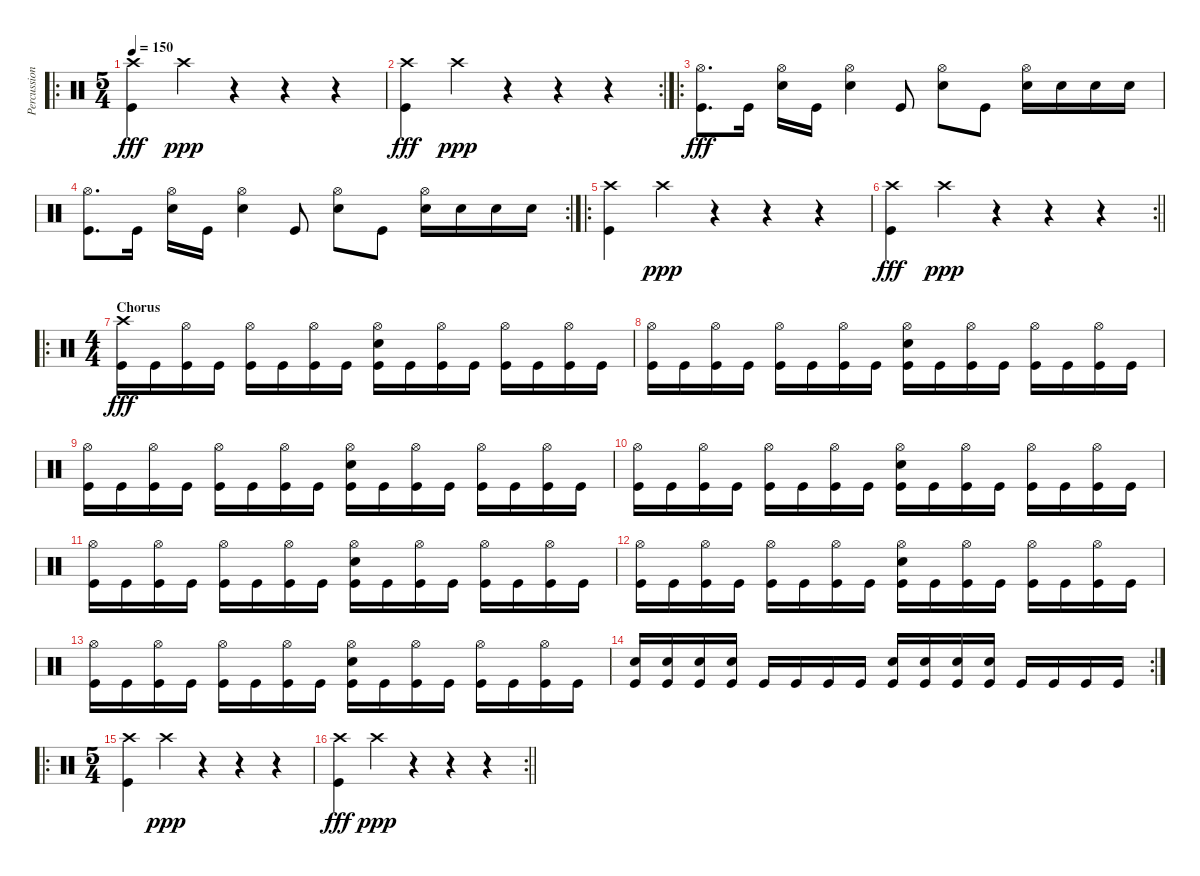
\track ("Percussioni" "Percussion") {instrument percussion}
\staff {score}
\articulation defaults
\ro
\ts (5 4)
\tempo 150
\clef neutral
\ks c
("Crash high (hit)" "Kick (hit)").4{dy fff} "Crash high (hit)".4{dy ppp} r.4 r.4 r.4 |
\rc 2
("Crash high (hit)" "Kick (hit)").4{dy fff} "Crash high (hit)".4{dy ppp} r.4 r.4 r.4 |
\ro
("Hi-Hat (open)" "Kick (hit)").8{d dy fff} "Kick (hit)".16 ("Hi-Hat (open)" "Snare (hit) 2").16 "Kick (hit)".16 ("Hi-Hat (open)" "Snare (hit) 2").4 "Kick (hit)".8 ("Hi-Hat (open)" "Snare (hit) 2").8 "Kick (hit)".8 ("Hi-Hat (open)" "Snare (hit) 2").16 "Snare (hit) 2".16 "Snare (hit) 2".16 "Snare (hit) 2".16 |
\rc 2
("Hi-Hat (open)" "Kick (hit)").8{d} "Kick (hit)".16 ("Hi-Hat (open)" "Snare (hit) 2").16 "Kick (hit)".16 ("Hi-Hat (open)" "Snare (hit) 2").4 "Kick (hit)".8 ("Hi-Hat (open)" "Snare (hit) 2").8 "Kick (hit)".8 ("Hi-Hat (open)" "Snare (hit) 2").16 "Snare (hit) 2".16 "Snare (hit) 2".16 "Snare (hit) 2".16 |
\ro
("Crash high (hit)" "Kick (hit)").4 "Crash high (hit)".4{dy ppp} r.4 r.4 r.4 |
\rc 2
\barLineRight lightlight
("Crash high (hit)" "Kick (hit)").4{dy fff} "Crash high (hit)".4{dy ppp} r.4 r.4 r.4 |
\ro
\ts (4 4)
\section ("" "Chorus")
("Crash high (hit)" "Kick (hit)").16{dy fff} "Kick (hit)".16 ("Hi-Hat (open)" "Kick (hit)").16 "Kick (hit)".16 ("Hi-Hat (open)" "Kick (hit)").16 "Kick (hit)".16 ("Hi-Hat (open)" "Kick (hit)").16 "Kick (hit)".16 ("Hi-Hat (open)" "Snare (hit) 2" "Kick (hit)").16 "Kick (hit)".16 ("Hi-Hat (open)" "Kick (hit)").16 "Kick (hit)".16 ("Hi-Hat (open)" "Kick (hit)").16 "Kick (hit)".16 ("Hi-Hat (open)" "Kick (hit)").16 "Kick (hit)".16 |
("Hi-Hat (open)" "Kick (hit)").16 "Kick (hit)".16 ("Hi-Hat (open)" "Kick (hit)").16 "Kick (hit)".16 ("Hi-Hat (open)" "Kick (hit)").16 "Kick (hit)".16 ("Hi-Hat (open)" "Kick (hit)").16 "Kick (hit)".16 ("Hi-Hat (open)" "Snare (hit) 2" "Kick (hit)").16 "Kick (hit)".16 ("Hi-Hat (open)" "Kick (hit)").16 "Kick (hit)".16 ("Hi-Hat (open)" "Kick (hit)").16 "Kick (hit)".16 ("Hi-Hat (open)" "Kick (hit)").16 "Kick (hit)".16 |
("Hi-Hat (open)" "Kick (hit)").16 "Kick (hit)".16 ("Hi-Hat (open)" "Kick (hit)").16 "Kick (hit)".16 ("Hi-Hat (open)" "Kick (hit)").16 "Kick (hit)".16 ("Hi-Hat (open)" "Kick (hit)").16 "Kick (hit)".16 ("Hi-Hat (open)" "Snare (hit) 2" "Kick (hit)").16 "Kick (hit)".16 ("Hi-Hat (open)" "Kick (hit)").16 "Kick (hit)".16 ("Hi-Hat (open)" "Kick (hit)").16 "Kick (hit)".16 ("Hi-Hat (open)" "Kick (hit)").16 "Kick (hit)".16 |
("Hi-Hat (open)" "Kick (hit)").16 "Kick (hit)".16 ("Hi-Hat (open)" "Kick (hit)").16 "Kick (hit)".16 ("Hi-Hat (open)" "Kick (hit)").16 "Kick (hit)".16 ("Hi-Hat (open)" "Kick (hit)").16 "Kick (hit)".16 ("Hi-Hat (open)" "Snare (hit) 2" "Kick (hit)").16 "Kick (hit)".16 ("Hi-Hat (open)" "Kick (hit)").16 "Kick (hit)".16 ("Hi-Hat (open)" "Kick (hit)").16 "Kick (hit)".16 ("Hi-Hat (open)" "Kick (hit)").16 "Kick (hit)".16 |
("Hi-Hat (open)" "Kick (hit)").16 "Kick (hit)".16 ("Hi-Hat (open)" "Kick (hit)").16 "Kick (hit)".16 ("Hi-Hat (open)" "Kick (hit)").16 "Kick (hit)".16 ("Hi-Hat (open)" "Kick (hit)").16 "Kick (hit)".16 ("Hi-Hat (open)" "Snare (hit) 2" "Kick (hit)").16 "Kick (hit)".16 ("Hi-Hat (open)" "Kick (hit)").16 "Kick (hit)".16 ("Hi-Hat (open)" "Kick (hit)").16 "Kick (hit)".16 ("Hi-Hat (open)" "Kick (hit)").16 "Kick (hit)".16 |
("Hi-Hat (open)" "Kick (hit)").16 "Kick (hit)".16 ("Hi-Hat (open)" "Kick (hit)").16 "Kick (hit)".16 ("Hi-Hat (open)" "Kick (hit)").16 "Kick (hit)".16 ("Hi-Hat (open)" "Kick (hit)").16 "Kick (hit)".16 ("Hi-Hat (open)" "Snare (hit) 2" "Kick (hit)").16 "Kick (hit)".16 ("Hi-Hat (open)" "Kick (hit)").16 "Kick (hit)".16 ("Hi-Hat (open)" "Kick (hit)").16 "Kick (hit)".16 ("Hi-Hat (open)" "Kick (hit)").16 "Kick (hit)".16 |
("Hi-Hat (open)" "Kick (hit)").16 "Kick (hit)".16 ("Hi-Hat (open)" "Kick (hit)").16 "Kick (hit)".16 ("Hi-Hat (open)" "Kick (hit)").16 "Kick (hit)".16 ("Hi-Hat (open)" "Kick (hit)").16 "Kick (hit)".16 ("Hi-Hat (open)" "Snare (hit) 2" "Kick (hit)").16 "Kick (hit)".16 ("Hi-Hat (open)" "Kick (hit)").16 "Kick (hit)".16 ("Hi-Hat (open)" "Kick (hit)").16 "Kick (hit)".16 ("Hi-Hat (open)" "Kick (hit)").16 "Kick (hit)".16 |
\rc 2
("Snare (hit) 2" "Kick (hit)").16 ("Snare (hit) 2" "Kick (hit)").16 ("Snare (hit) 2" "Kick (hit)").16 ("Snare (hit) 2" "Kick (hit)").16 "Kick (hit)".16 "Kick (hit)".16 "Kick (hit)".16 "Kick (hit)".16 ("Snare (hit) 2" "Kick (hit)").16 ("Snare (hit) 2" "Kick (hit)").16 ("Snare (hit) 2" "Kick (hit)").16 ("Snare (hit) 2" "Kick (hit)").16 "Kick (hit)".16 "Kick (hit)".16 "Kick (hit)".16 "Kick (hit)".16 |
\ro
\ts (5 4)
("Crash high (hit)" "Kick (hit)").4 "Crash high (hit)".4{dy ppp} r.4 r.4 r.4 |
\rc 2
\barLineRight lightlight
("Crash high (hit)" "Kick (hit)").4{dy fff} "Crash high (hit)".4{dy ppp} r.4 r.4 r.4
